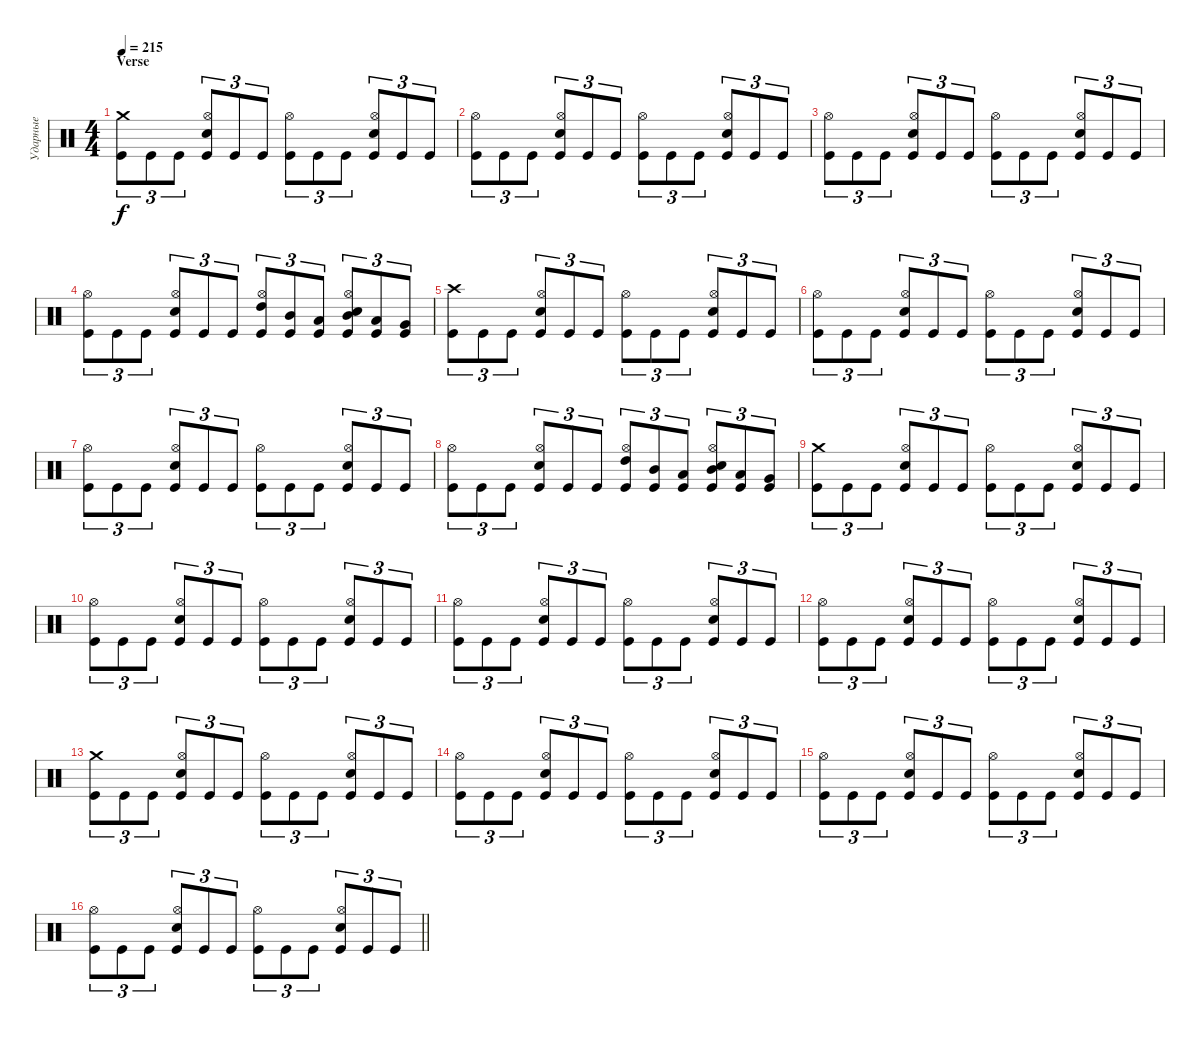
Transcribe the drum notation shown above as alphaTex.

\track ("Ударные" "Ударные") {instrument percussion}
\staff {score}
\articulation defaults
\ts (4 4)
\section ("" "Verse")
\tempo 215
\clef neutral
\ks c
("Crash medium (hit)" "Kick (hit)").8{tu (3 2) dy f} "Kick (hit)".8{tu (3 2)} "Kick (hit)".8{tu (3 2)} ("Hi-Hat (open)" "Electric Snare (hit)" "Kick (hit)").8{tu (3 2)} "Kick (hit)".8{tu (3 2)} "Kick (hit)".8{tu (3 2)} ("Hi-Hat (open)" "Kick (hit)").8{tu (3 2)} "Kick (hit)".8{tu (3 2)} "Kick (hit)".8{tu (3 2)} ("Hi-Hat (open)" "Electric Snare (hit)" "Kick (hit)").8{tu (3 2)} "Kick (hit)".8{tu (3 2)} "Kick (hit)".8{tu (3 2)} |
("Hi-Hat (open)" "Kick (hit)").8{tu (3 2)} "Kick (hit)".8{tu (3 2)} "Kick (hit)".8{tu (3 2)} ("Hi-Hat (open)" "Electric Snare (hit)" "Kick (hit)").8{tu (3 2)} "Kick (hit)".8{tu (3 2)} "Kick (hit)".8{tu (3 2)} ("Hi-Hat (open)" "Kick (hit)").8{tu (3 2)} "Kick (hit)".8{tu (3 2)} "Kick (hit)".8{tu (3 2)} ("Hi-Hat (open)" "Electric Snare (hit)" "Kick (hit)").8{tu (3 2)} "Kick (hit)".8{tu (3 2)} "Kick (hit)".8{tu (3 2)} |
("Hi-Hat (open)" "Kick (hit)").8{tu (3 2)} "Kick (hit)".8{tu (3 2)} "Kick (hit)".8{tu (3 2)} ("Hi-Hat (open)" "Electric Snare (hit)" "Kick (hit)").8{tu (3 2)} "Kick (hit)".8{tu (3 2)} "Kick (hit)".8{tu (3 2)} ("Hi-Hat (open)" "Kick (hit)").8{tu (3 2)} "Kick (hit)".8{tu (3 2)} "Kick (hit)".8{tu (3 2)} ("Hi-Hat (open)" "Electric Snare (hit)" "Kick (hit)").8{tu (3 2)} "Kick (hit)".8{tu (3 2)} "Kick (hit)".8{tu (3 2)} |
("Hi-Hat (open)" "Kick (hit)").8{tu (3 2)} "Kick (hit)".8{tu (3 2)} "Kick (hit)".8{tu (3 2)} ("Hi-Hat (open)" "Electric Snare (hit)" "Kick (hit)").8{tu (3 2)} "Kick (hit)".8{tu (3 2)} "Kick (hit)".8{tu (3 2)} ("High Tom (hit)" "Hi-Hat (open)" "Kick (hit)").8{tu (3 2)} ("Mid Tom (hit)" "Kick (hit)").8{tu (3 2)} ("Low Tom (hit)" "Kick (hit)").8{tu (3 2)} ("Mid Tom (hit)" "Hi-Hat (open)" "Electric Snare (hit)" "Kick (hit)").8{tu (3 2)} ("Low Tom (hit)" "Kick (hit)").8{tu (3 2)} ("Very Low Tom (hit)" "Kick (hit)").8{tu (3 2)} |
("Crash high (hit)" "Kick (hit)").8{tu (3 2)} "Kick (hit)".8{tu (3 2)} "Kick (hit)".8{tu (3 2)} ("Hi-Hat (open)" "Electric Snare (hit)" "Kick (hit)").8{tu (3 2)} "Kick (hit)".8{tu (3 2)} "Kick (hit)".8{tu (3 2)} ("Hi-Hat (open)" "Kick (hit)").8{tu (3 2)} "Kick (hit)".8{tu (3 2)} "Kick (hit)".8{tu (3 2)} ("Hi-Hat (open)" "Electric Snare (hit)" "Kick (hit)").8{tu (3 2)} "Kick (hit)".8{tu (3 2)} "Kick (hit)".8{tu (3 2)} |
("Hi-Hat (open)" "Kick (hit)").8{tu (3 2)} "Kick (hit)".8{tu (3 2)} "Kick (hit)".8{tu (3 2)} ("Hi-Hat (open)" "Electric Snare (hit)" "Kick (hit)").8{tu (3 2)} "Kick (hit)".8{tu (3 2)} "Kick (hit)".8{tu (3 2)} ("Hi-Hat (open)" "Kick (hit)").8{tu (3 2)} "Kick (hit)".8{tu (3 2)} "Kick (hit)".8{tu (3 2)} ("Hi-Hat (open)" "Electric Snare (hit)" "Kick (hit)").8{tu (3 2)} "Kick (hit)".8{tu (3 2)} "Kick (hit)".8{tu (3 2)} |
("Hi-Hat (open)" "Kick (hit)").8{tu (3 2)} "Kick (hit)".8{tu (3 2)} "Kick (hit)".8{tu (3 2)} ("Hi-Hat (open)" "Electric Snare (hit)" "Kick (hit)").8{tu (3 2)} "Kick (hit)".8{tu (3 2)} "Kick (hit)".8{tu (3 2)} ("Hi-Hat (open)" "Kick (hit)").8{tu (3 2)} "Kick (hit)".8{tu (3 2)} "Kick (hit)".8{tu (3 2)} ("Hi-Hat (open)" "Electric Snare (hit)" "Kick (hit)").8{tu (3 2)} "Kick (hit)".8{tu (3 2)} "Kick (hit)".8{tu (3 2)} |
("Hi-Hat (open)" "Kick (hit)").8{tu (3 2)} "Kick (hit)".8{tu (3 2)} "Kick (hit)".8{tu (3 2)} ("Hi-Hat (open)" "Electric Snare (hit)" "Kick (hit)").8{tu (3 2)} "Kick (hit)".8{tu (3 2)} "Kick (hit)".8{tu (3 2)} ("High Tom (hit)" "Hi-Hat (open)" "Kick (hit)").8{tu (3 2)} ("Mid Tom (hit)" "Kick (hit)").8{tu (3 2)} ("Low Tom (hit)" "Kick (hit)").8{tu (3 2)} ("Mid Tom (hit)" "Hi-Hat (open)" "Electric Snare (hit)" "Kick (hit)").8{tu (3 2)} ("Low Tom (hit)" "Kick (hit)").8{tu (3 2)} ("Very Low Tom (hit)" "Kick (hit)").8{tu (3 2)} |
("Crash medium (hit)" "Kick (hit)").8{tu (3 2)} "Kick (hit)".8{tu (3 2)} "Kick (hit)".8{tu (3 2)} ("Hi-Hat (open)" "Electric Snare (hit)" "Kick (hit)").8{tu (3 2)} "Kick (hit)".8{tu (3 2)} "Kick (hit)".8{tu (3 2)} ("Hi-Hat (open)" "Kick (hit)").8{tu (3 2)} "Kick (hit)".8{tu (3 2)} "Kick (hit)".8{tu (3 2)} ("Hi-Hat (open)" "Electric Snare (hit)" "Kick (hit)").8{tu (3 2)} "Kick (hit)".8{tu (3 2)} "Kick (hit)".8{tu (3 2)} |
("Hi-Hat (open)" "Kick (hit)").8{tu (3 2)} "Kick (hit)".8{tu (3 2)} "Kick (hit)".8{tu (3 2)} ("Hi-Hat (open)" "Electric Snare (hit)" "Kick (hit)").8{tu (3 2)} "Kick (hit)".8{tu (3 2)} "Kick (hit)".8{tu (3 2)} ("Hi-Hat (open)" "Kick (hit)").8{tu (3 2)} "Kick (hit)".8{tu (3 2)} "Kick (hit)".8{tu (3 2)} ("Hi-Hat (open)" "Electric Snare (hit)" "Kick (hit)").8{tu (3 2)} "Kick (hit)".8{tu (3 2)} "Kick (hit)".8{tu (3 2)} |
("Hi-Hat (open)" "Kick (hit)").8{tu (3 2)} "Kick (hit)".8{tu (3 2)} "Kick (hit)".8{tu (3 2)} ("Hi-Hat (open)" "Electric Snare (hit)" "Kick (hit)").8{tu (3 2)} "Kick (hit)".8{tu (3 2)} "Kick (hit)".8{tu (3 2)} ("Hi-Hat (open)" "Kick (hit)").8{tu (3 2)} "Kick (hit)".8{tu (3 2)} "Kick (hit)".8{tu (3 2)} ("Hi-Hat (open)" "Electric Snare (hit)" "Kick (hit)").8{tu (3 2)} "Kick (hit)".8{tu (3 2)} "Kick (hit)".8{tu (3 2)} |
("Hi-Hat (open)" "Kick (hit)").8{tu (3 2)} "Kick (hit)".8{tu (3 2)} "Kick (hit)".8{tu (3 2)} ("Hi-Hat (open)" "Electric Snare (hit)" "Kick (hit)").8{tu (3 2)} "Kick (hit)".8{tu (3 2)} "Kick (hit)".8{tu (3 2)} ("Hi-Hat (open)" "Kick (hit)").8{tu (3 2)} "Kick (hit)".8{tu (3 2)} "Kick (hit)".8{tu (3 2)} ("Hi-Hat (open)" "Electric Snare (hit)" "Kick (hit)").8{tu (3 2)} "Kick (hit)".8{tu (3 2)} "Kick (hit)".8{tu (3 2)} |
("Crash medium (hit)" "Kick (hit)").8{tu (3 2)} "Kick (hit)".8{tu (3 2)} "Kick (hit)".8{tu (3 2)} ("Hi-Hat (open)" "Electric Snare (hit)" "Kick (hit)").8{tu (3 2)} "Kick (hit)".8{tu (3 2)} "Kick (hit)".8{tu (3 2)} ("Hi-Hat (open)" "Kick (hit)").8{tu (3 2)} "Kick (hit)".8{tu (3 2)} "Kick (hit)".8{tu (3 2)} ("Hi-Hat (open)" "Electric Snare (hit)" "Kick (hit)").8{tu (3 2)} "Kick (hit)".8{tu (3 2)} "Kick (hit)".8{tu (3 2)} |
("Hi-Hat (open)" "Kick (hit)").8{tu (3 2)} "Kick (hit)".8{tu (3 2)} "Kick (hit)".8{tu (3 2)} ("Hi-Hat (open)" "Electric Snare (hit)" "Kick (hit)").8{tu (3 2)} "Kick (hit)".8{tu (3 2)} "Kick (hit)".8{tu (3 2)} ("Hi-Hat (open)" "Kick (hit)").8{tu (3 2)} "Kick (hit)".8{tu (3 2)} "Kick (hit)".8{tu (3 2)} ("Hi-Hat (open)" "Electric Snare (hit)" "Kick (hit)").8{tu (3 2)} "Kick (hit)".8{tu (3 2)} "Kick (hit)".8{tu (3 2)} |
("Hi-Hat (open)" "Kick (hit)").8{tu (3 2)} "Kick (hit)".8{tu (3 2)} "Kick (hit)".8{tu (3 2)} ("Hi-Hat (open)" "Electric Snare (hit)" "Kick (hit)").8{tu (3 2)} "Kick (hit)".8{tu (3 2)} "Kick (hit)".8{tu (3 2)} ("Hi-Hat (open)" "Kick (hit)").8{tu (3 2)} "Kick (hit)".8{tu (3 2)} "Kick (hit)".8{tu (3 2)} ("Hi-Hat (open)" "Electric Snare (hit)" "Kick (hit)").8{tu (3 2)} "Kick (hit)".8{tu (3 2)} "Kick (hit)".8{tu (3 2)} |
\barLineRight lightlight
("Hi-Hat (open)" "Kick (hit)").8{tu (3 2)} "Kick (hit)".8{tu (3 2)} "Kick (hit)".8{tu (3 2)} ("Hi-Hat (open)" "Electric Snare (hit)" "Kick (hit)").8{tu (3 2)} "Kick (hit)".8{tu (3 2)} "Kick (hit)".8{tu (3 2)} ("Hi-Hat (open)" "Kick (hit)").8{tu (3 2)} "Kick (hit)".8{tu (3 2)} "Kick (hit)".8{tu (3 2)} ("Hi-Hat (open)" "Electric Snare (hit)" "Kick (hit)").8{tu (3 2)} "Kick (hit)".8{tu (3 2)} "Kick (hit)".8{tu (3 2)}
